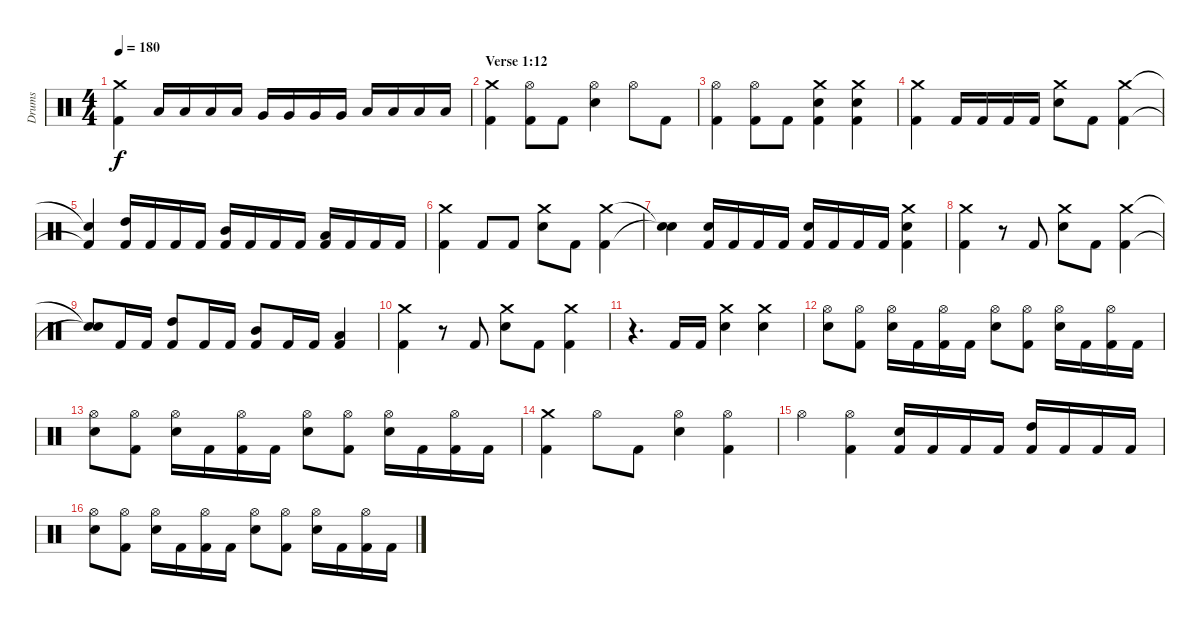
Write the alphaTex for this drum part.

\track ("Drums" "Drums") {instrument percussion}
\staff {score}
\articulation defaults
\ts (4 4)
\tempo 180
\clef neutral
\ks c
("Crash medium (hit)" "Kick (hit) 2").4{dy f} "Low Tom (hit)".16 "Low Tom (hit)".16 "Low Tom (hit)".16 "Low Tom (hit)".16 "Very Low Tom (hit)".16 "Very Low Tom (hit)".16 "Very Low Tom (hit)".16 "Very Low Tom (hit)".16 "Low Floor Tom (hit)".16 "Low Floor Tom (hit)".16 "Low Floor Tom (hit)".16 "Low Floor Tom (hit)".16 |
\section ("" "Verse 1:12")
("Crash medium (hit)" "Kick (hit) 2").4 ("Hi-Hat (open)" "Kick (hit) 2").8 "Kick (hit) 2".8 ("Electric Snare (hit)" "Hi-Hat (open)").4 "Hi-Hat (open)".8 "Kick (hit) 2".8 |
("Hi-Hat (open)" "Kick (hit) 2").4 ("Hi-Hat (open)" "Kick (hit) 2").8 "Kick (hit) 2".8 ("Crash medium (hit)" "Electric Snare (hit)" "Kick (hit) 2").4 ("Crash medium (hit)" "Electric Snare (hit)" "Kick (hit) 2").4 |
("Kick (hit) 2" "Crash medium (hit)").4 "Kick (hit) 2".16 "Kick (hit) 2".16 "Kick (hit) 2".16 "Kick (hit) 2".16 ("Crash medium (hit)" "Electric Snare (hit)").8 "Kick (hit) 2".8 ("Crash medium (hit)" "Kick (hit) 2").4 |
("Snare (hit)"{t} "Kick (hit) 2"{t}).4 ("High Tom (hit)" "Kick (hit) 2").16 "Kick (hit) 2".16 "Kick (hit) 2".16 "Kick (hit) 2".16 ("Mid Tom (hit)" "Kick (hit) 2").16 "Kick (hit) 2".16 "Kick (hit) 2".16 "Kick (hit) 2".16 ("Low Tom (hit)" "Kick (hit) 2").16 "Kick (hit) 2".16 "Kick (hit) 2".16 "Kick (hit) 2".16 |
("Kick (hit) 2" "Crash medium (hit)").4 "Kick (hit) 2".8 "Kick (hit) 2".8 ("Crash medium (hit)" "Electric Snare (hit)").8 "Kick (hit) 2".8 ("Crash medium (hit)" "Kick (hit) 2").4 |
("Snare (hit)"{t} "Snare (hit)"{t}).4 ("Kick (hit) 2" "Electric Snare (hit)").16 "Kick (hit) 2".16 "Kick (hit) 2".16 "Kick (hit) 2".16 ("Kick (hit) 2" "Electric Snare (hit)").16 "Kick (hit) 2".16 "Kick (hit) 2".16 "Kick (hit) 2".16 ("Crash medium (hit)" "Kick (hit) 2" "Electric Snare (hit)").4 |
("Kick (hit) 2" "Crash medium (hit)").4 r.8 "Kick (hit) 2".8 ("Crash medium (hit)" "Electric Snare (hit)").8 "Kick (hit) 2".8 ("Crash medium (hit)" "Kick (hit) 2").4 |
("Snare (hit)"{t} "Snare (hit)"{t}).8 "Kick (hit) 2".16 "Kick (hit) 2".16 ("Kick (hit) 2" "High Tom (hit)").8 "Kick (hit) 2".16 "Kick (hit) 2".16 ("Kick (hit) 2" "Mid Tom (hit)").8 "Kick (hit) 2".16 "Kick (hit) 2".16 ("Kick (hit) 2" "Low Tom (hit)").4 |
("Kick (hit) 2" "Crash medium (hit)").4 r.8 "Kick (hit) 2".8 ("Crash medium (hit)" "Electric Snare (hit)").8 "Kick (hit) 2".8 ("Crash medium (hit)" "Kick (hit) 2").4 |
r.4{d} "Kick (hit) 2".16 "Kick (hit) 2".16 ("Crash medium (hit)" "Electric Snare (hit)").4 ("Crash medium (hit)" "Electric Snare (hit)").4 |
("Hi-Hat (open)" "Electric Snare (hit)").8 ("Hi-Hat (open)" "Kick (hit) 2").8 ("Hi-Hat (open)" "Electric Snare (hit)").16 "Kick (hit) 2".16 ("Hi-Hat (open)" "Kick (hit) 2").16 "Kick (hit) 2".16 ("Hi-Hat (open)" "Electric Snare (hit)").8 ("Hi-Hat (open)" "Kick (hit) 2").8 ("Hi-Hat (open)" "Electric Snare (hit)").16 "Kick (hit) 2".16 ("Hi-Hat (open)" "Kick (hit) 2").16 "Kick (hit) 2".16 |
("Hi-Hat (open)" "Electric Snare (hit)").8 ("Hi-Hat (open)" "Kick (hit) 2").8 ("Hi-Hat (open)" "Electric Snare (hit)").16 "Kick (hit) 2".16 ("Hi-Hat (open)" "Kick (hit) 2").16 "Kick (hit) 2".16 ("Hi-Hat (open)" "Electric Snare (hit)").8 ("Hi-Hat (open)" "Kick (hit) 2").8 ("Hi-Hat (open)" "Electric Snare (hit)").16 "Kick (hit) 2".16 ("Hi-Hat (open)" "Kick (hit) 2").16 "Kick (hit) 2".16 |
("Crash medium (hit)" "Kick (hit) 2").4 "Hi-Hat (open)".8 "Kick (hit) 2".8 ("Electric Snare (hit)" "Hi-Hat (open)").4 ("Hi-Hat (open)" "Kick (hit) 2").4 |
"Hi-Hat (open)".4 ("Hi-Hat (open)" "Kick (hit) 2").4 ("Electric Snare (hit)" "Kick (hit) 2").16 "Kick (hit) 2".16 "Kick (hit) 2".16 "Kick (hit) 2".16 ("High Tom (hit)" "Kick (hit) 2").16 "Kick (hit) 2".16 "Kick (hit) 2".16 "Kick (hit) 2".16 |
("Hi-Hat (open)" "Electric Snare (hit)").8 ("Hi-Hat (open)" "Kick (hit) 2").8 ("Hi-Hat (open)" "Electric Snare (hit)").16 "Kick (hit) 2".16 ("Hi-Hat (open)" "Kick (hit) 2").16 "Kick (hit) 2".16 ("Hi-Hat (open)" "Electric Snare (hit)").8 ("Hi-Hat (open)" "Kick (hit) 2").8 ("Hi-Hat (open)" "Electric Snare (hit)").16 "Kick (hit) 2".16 ("Hi-Hat (open)" "Kick (hit) 2").16 "Kick (hit) 2".16
